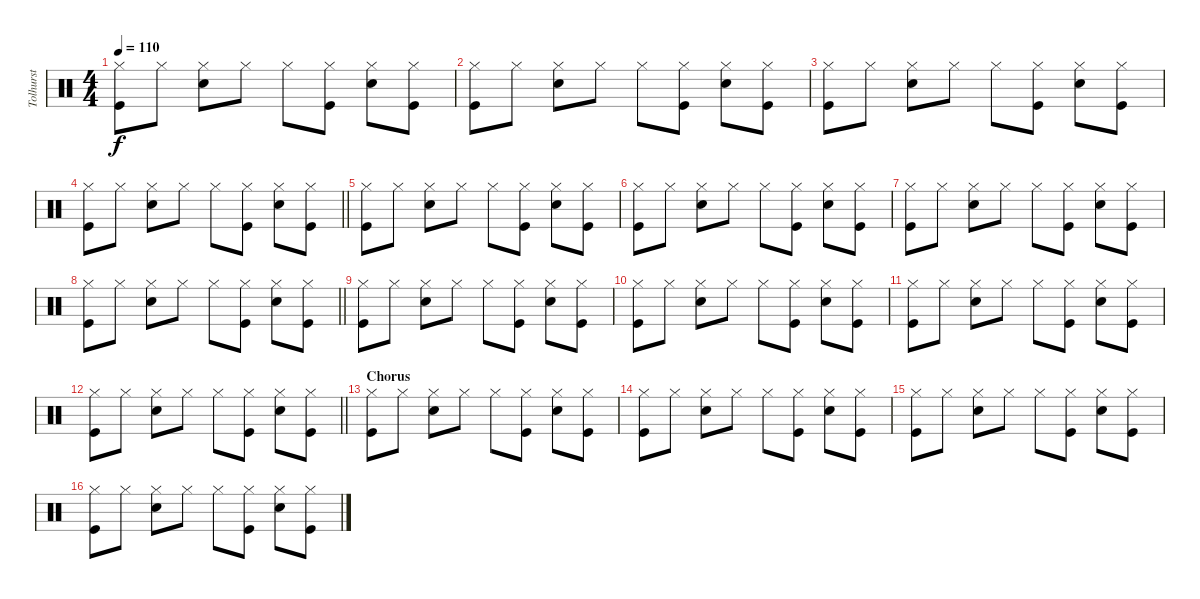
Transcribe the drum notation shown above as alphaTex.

\track ("Tolhurst" "Tolhurst") {instrument percussion}
\staff {score}
\articulation defaults
\ts (4 4)
\tempo 110
\clef neutral
\ks c
("Hi-Hat (closed)" "Kick (hit)").8{dy f} "Hi-Hat (closed)".8 ("Hi-Hat (closed)" "Electric Snare (hit)").8 "Hi-Hat (closed)".8 "Hi-Hat (closed)".8 ("Hi-Hat (closed)" "Kick (hit)").8 ("Hi-Hat (closed)" "Electric Snare (hit)").8 ("Hi-Hat (closed)" "Kick (hit)").8 |
("Hi-Hat (closed)" "Kick (hit)").8 "Hi-Hat (closed)".8 ("Hi-Hat (closed)" "Electric Snare (hit)").8 "Hi-Hat (closed)".8 "Hi-Hat (closed)".8 ("Hi-Hat (closed)" "Kick (hit)").8 ("Hi-Hat (closed)" "Electric Snare (hit)").8 ("Hi-Hat (closed)" "Kick (hit)").8 |
("Hi-Hat (closed)" "Kick (hit)").8 "Hi-Hat (closed)".8 ("Hi-Hat (closed)" "Electric Snare (hit)").8 "Hi-Hat (closed)".8 "Hi-Hat (closed)".8 ("Hi-Hat (closed)" "Kick (hit)").8 ("Hi-Hat (closed)" "Electric Snare (hit)").8 ("Hi-Hat (closed)" "Kick (hit)").8 |
\barLineRight lightlight
("Hi-Hat (closed)" "Kick (hit)").8 "Hi-Hat (closed)".8 ("Hi-Hat (closed)" "Electric Snare (hit)").8 "Hi-Hat (closed)".8 "Hi-Hat (closed)".8 ("Hi-Hat (closed)" "Kick (hit)").8 ("Hi-Hat (closed)" "Electric Snare (hit)").8 ("Hi-Hat (closed)" "Kick (hit)").8 |
("Hi-Hat (closed)" "Kick (hit)").8 "Hi-Hat (closed)".8 ("Hi-Hat (closed)" "Electric Snare (hit)").8 "Hi-Hat (closed)".8 "Hi-Hat (closed)".8 ("Hi-Hat (closed)" "Kick (hit)").8 ("Hi-Hat (closed)" "Electric Snare (hit)").8 ("Hi-Hat (closed)" "Kick (hit)").8 |
("Hi-Hat (closed)" "Kick (hit)").8 "Hi-Hat (closed)".8 ("Hi-Hat (closed)" "Electric Snare (hit)").8 "Hi-Hat (closed)".8 "Hi-Hat (closed)".8 ("Hi-Hat (closed)" "Kick (hit)").8 ("Hi-Hat (closed)" "Electric Snare (hit)").8 ("Hi-Hat (closed)" "Kick (hit)").8 |
("Hi-Hat (closed)" "Kick (hit)").8 "Hi-Hat (closed)".8 ("Hi-Hat (closed)" "Electric Snare (hit)").8 "Hi-Hat (closed)".8 "Hi-Hat (closed)".8 ("Hi-Hat (closed)" "Kick (hit)").8 ("Hi-Hat (closed)" "Electric Snare (hit)").8 ("Hi-Hat (closed)" "Kick (hit)").8 |
\barLineRight lightlight
("Hi-Hat (closed)" "Kick (hit)").8 "Hi-Hat (closed)".8 ("Hi-Hat (closed)" "Electric Snare (hit)").8 "Hi-Hat (closed)".8 "Hi-Hat (closed)".8 ("Hi-Hat (closed)" "Kick (hit)").8 ("Hi-Hat (closed)" "Electric Snare (hit)").8 ("Hi-Hat (closed)" "Kick (hit)").8 |
("Hi-Hat (closed)" "Kick (hit)").8 "Hi-Hat (closed)".8 ("Hi-Hat (closed)" "Electric Snare (hit)").8 "Hi-Hat (closed)".8 "Hi-Hat (closed)".8 ("Hi-Hat (closed)" "Kick (hit)").8 ("Hi-Hat (closed)" "Electric Snare (hit)").8 ("Hi-Hat (closed)" "Kick (hit)").8 |
("Hi-Hat (closed)" "Kick (hit)").8 "Hi-Hat (closed)".8 ("Hi-Hat (closed)" "Electric Snare (hit)").8 "Hi-Hat (closed)".8 "Hi-Hat (closed)".8 ("Hi-Hat (closed)" "Kick (hit)").8 ("Hi-Hat (closed)" "Electric Snare (hit)").8 ("Hi-Hat (closed)" "Kick (hit)").8 |
("Hi-Hat (closed)" "Kick (hit)").8 "Hi-Hat (closed)".8 ("Hi-Hat (closed)" "Electric Snare (hit)").8 "Hi-Hat (closed)".8 "Hi-Hat (closed)".8 ("Hi-Hat (closed)" "Kick (hit)").8 ("Hi-Hat (closed)" "Electric Snare (hit)").8 ("Hi-Hat (closed)" "Kick (hit)").8 |
\barLineRight lightlight
("Hi-Hat (closed)" "Kick (hit)").8 "Hi-Hat (closed)".8 ("Hi-Hat (closed)" "Electric Snare (hit)").8 "Hi-Hat (closed)".8 "Hi-Hat (closed)".8 ("Hi-Hat (closed)" "Kick (hit)").8 ("Hi-Hat (closed)" "Electric Snare (hit)").8 ("Hi-Hat (closed)" "Kick (hit)").8 |
\section ("" "Chorus")
("Hi-Hat (closed)" "Kick (hit)").8 "Hi-Hat (closed)".8 ("Hi-Hat (closed)" "Electric Snare (hit)").8 "Hi-Hat (closed)".8 "Hi-Hat (closed)".8 ("Hi-Hat (closed)" "Kick (hit)").8 ("Hi-Hat (closed)" "Electric Snare (hit)").8 ("Hi-Hat (closed)" "Kick (hit)").8 |
("Hi-Hat (closed)" "Kick (hit)").8 "Hi-Hat (closed)".8 ("Hi-Hat (closed)" "Electric Snare (hit)").8 "Hi-Hat (closed)".8 "Hi-Hat (closed)".8 ("Hi-Hat (closed)" "Kick (hit)").8 ("Hi-Hat (closed)" "Electric Snare (hit)").8 ("Hi-Hat (closed)" "Kick (hit)").8 |
("Hi-Hat (closed)" "Kick (hit)").8 "Hi-Hat (closed)".8 ("Hi-Hat (closed)" "Electric Snare (hit)").8 "Hi-Hat (closed)".8 "Hi-Hat (closed)".8 ("Hi-Hat (closed)" "Kick (hit)").8 ("Hi-Hat (closed)" "Electric Snare (hit)").8 ("Hi-Hat (closed)" "Kick (hit)").8 |
("Hi-Hat (closed)" "Kick (hit)").8 "Hi-Hat (closed)".8 ("Hi-Hat (closed)" "Electric Snare (hit)").8 "Hi-Hat (closed)".8 "Hi-Hat (closed)".8 ("Hi-Hat (closed)" "Kick (hit)").8 ("Hi-Hat (closed)" "Electric Snare (hit)").8 ("Hi-Hat (closed)" "Kick (hit)").8
